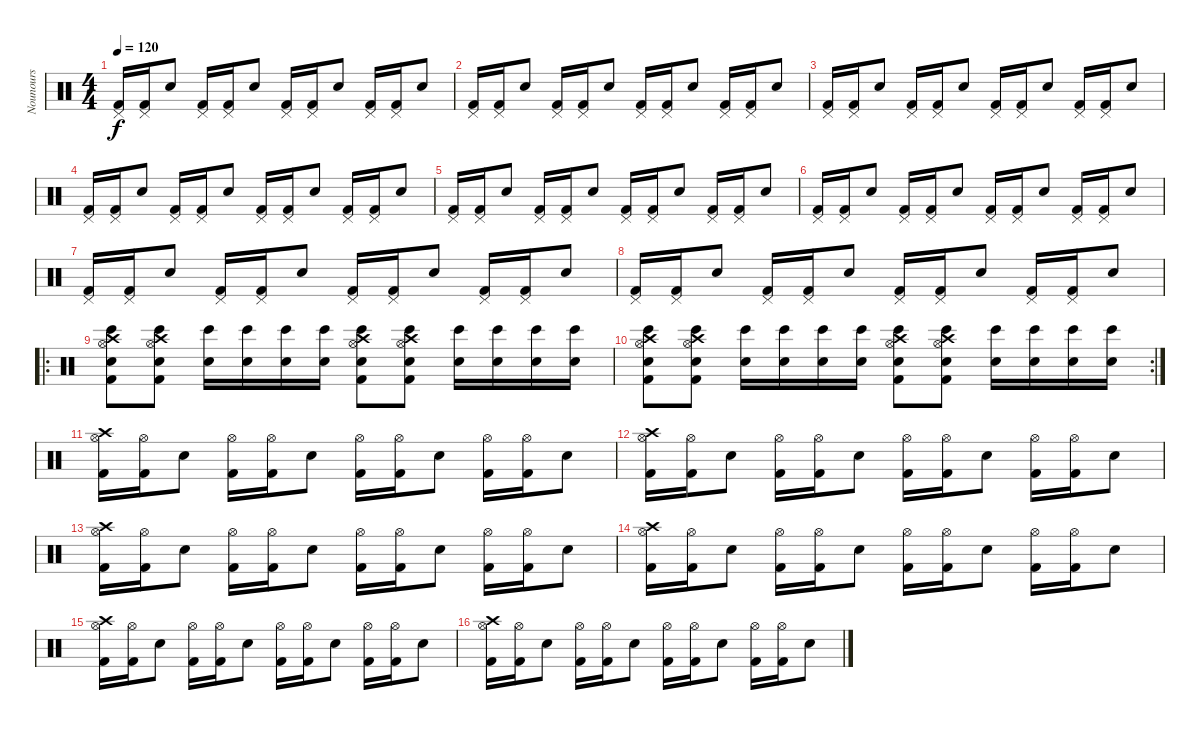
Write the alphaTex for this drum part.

\track ("Nounours" "Nounours") {instrument percussion}
\staff {score}
\articulation defaults
\ts (4 4)
\tempo 120
\clef neutral
\ks c
("Pedal Hi-Hat (hit)" "Kick (hit) 2").16{dy f} ("Pedal Hi-Hat (hit)" "Kick (hit) 2").16 "Electric Snare (hit)".8 ("Pedal Hi-Hat (hit)" "Kick (hit) 2").16 ("Pedal Hi-Hat (hit)" "Kick (hit) 2").16 "Electric Snare (hit)".8 ("Pedal Hi-Hat (hit)" "Kick (hit) 2").16 ("Pedal Hi-Hat (hit)" "Kick (hit) 2").16 "Electric Snare (hit)".8 ("Pedal Hi-Hat (hit)" "Kick (hit) 2").16 ("Pedal Hi-Hat (hit)" "Kick (hit) 2").16 "Electric Snare (hit)".8 |
("Pedal Hi-Hat (hit)" "Kick (hit) 2").16 ("Pedal Hi-Hat (hit)" "Kick (hit) 2").16 "Electric Snare (hit)".8 ("Pedal Hi-Hat (hit)" "Kick (hit) 2").16 ("Pedal Hi-Hat (hit)" "Kick (hit) 2").16 "Electric Snare (hit)".8 ("Pedal Hi-Hat (hit)" "Kick (hit) 2").16 ("Pedal Hi-Hat (hit)" "Kick (hit) 2").16 "Electric Snare (hit)".8 ("Pedal Hi-Hat (hit)" "Kick (hit) 2").16 ("Pedal Hi-Hat (hit)" "Kick (hit) 2").16 "Electric Snare (hit)".8 |
("Pedal Hi-Hat (hit)" "Kick (hit) 2").16 ("Pedal Hi-Hat (hit)" "Kick (hit) 2").16 "Electric Snare (hit)".8 ("Pedal Hi-Hat (hit)" "Kick (hit) 2").16 ("Pedal Hi-Hat (hit)" "Kick (hit) 2").16 "Electric Snare (hit)".8 ("Pedal Hi-Hat (hit)" "Kick (hit) 2").16 ("Pedal Hi-Hat (hit)" "Kick (hit) 2").16 "Electric Snare (hit)".8 ("Pedal Hi-Hat (hit)" "Kick (hit) 2").16 ("Pedal Hi-Hat (hit)" "Kick (hit) 2").16 "Electric Snare (hit)".8 |
("Pedal Hi-Hat (hit)" "Kick (hit) 2").16 ("Pedal Hi-Hat (hit)" "Kick (hit) 2").16 "Electric Snare (hit)".8 ("Pedal Hi-Hat (hit)" "Kick (hit) 2").16 ("Pedal Hi-Hat (hit)" "Kick (hit) 2").16 "Electric Snare (hit)".8 ("Pedal Hi-Hat (hit)" "Kick (hit) 2").16 ("Pedal Hi-Hat (hit)" "Kick (hit) 2").16 "Electric Snare (hit)".8 ("Pedal Hi-Hat (hit)" "Kick (hit) 2").16 ("Pedal Hi-Hat (hit)" "Kick (hit) 2").16 "Electric Snare (hit)".8 |
("Pedal Hi-Hat (hit)" "Kick (hit) 2").16 ("Pedal Hi-Hat (hit)" "Kick (hit) 2").16 "Electric Snare (hit)".8 ("Pedal Hi-Hat (hit)" "Kick (hit) 2").16 ("Pedal Hi-Hat (hit)" "Kick (hit) 2").16 "Electric Snare (hit)".8 ("Pedal Hi-Hat (hit)" "Kick (hit) 2").16 ("Pedal Hi-Hat (hit)" "Kick (hit) 2").16 "Electric Snare (hit)".8 ("Pedal Hi-Hat (hit)" "Kick (hit) 2").16 ("Pedal Hi-Hat (hit)" "Kick (hit) 2").16 "Electric Snare (hit)".8 |
("Pedal Hi-Hat (hit)" "Kick (hit) 2").16 ("Pedal Hi-Hat (hit)" "Kick (hit) 2").16 "Electric Snare (hit)".8 ("Pedal Hi-Hat (hit)" "Kick (hit) 2").16 ("Pedal Hi-Hat (hit)" "Kick (hit) 2").16 "Electric Snare (hit)".8 ("Pedal Hi-Hat (hit)" "Kick (hit) 2").16 ("Pedal Hi-Hat (hit)" "Kick (hit) 2").16 "Electric Snare (hit)".8 ("Pedal Hi-Hat (hit)" "Kick (hit) 2").16 ("Pedal Hi-Hat (hit)" "Kick (hit) 2").16 "Electric Snare (hit)".8 |
("Pedal Hi-Hat (hit)" "Kick (hit) 2").16 ("Pedal Hi-Hat (hit)" "Kick (hit) 2").16 "Electric Snare (hit)".8 ("Pedal Hi-Hat (hit)" "Kick (hit) 2").16 ("Pedal Hi-Hat (hit)" "Kick (hit) 2").16 "Electric Snare (hit)".8 ("Pedal Hi-Hat (hit)" "Kick (hit) 2").16 ("Pedal Hi-Hat (hit)" "Kick (hit) 2").16 "Electric Snare (hit)".8 ("Pedal Hi-Hat (hit)" "Kick (hit) 2").16 ("Pedal Hi-Hat (hit)" "Kick (hit) 2").16 "Electric Snare (hit)".8 |
("Pedal Hi-Hat (hit)" "Kick (hit) 2").16 ("Pedal Hi-Hat (hit)" "Kick (hit) 2").16 "Electric Snare (hit)".8 ("Pedal Hi-Hat (hit)" "Kick (hit) 2").16 ("Pedal Hi-Hat (hit)" "Kick (hit) 2").16 "Electric Snare (hit)".8 ("Pedal Hi-Hat (hit)" "Kick (hit) 2").16 ("Pedal Hi-Hat (hit)" "Kick (hit) 2").16 "Electric Snare (hit)".8 ("Pedal Hi-Hat (hit)" "Kick (hit) 2").16 ("Pedal Hi-Hat (hit)" "Kick (hit) 2").16 "Electric Snare (hit)".8 |
\ro
("Crash high (hit)" "Electric Snare (hit)" "Hi-Hat (open)" "Bongo High (hit)" "Kick (hit) 2").8 ("Crash high (hit)" "Electric Snare (hit)" "Hi-Hat (open)" "Bongo High (hit)" "Kick (hit) 2").8 ("Bongo High (hit)" "Electric Snare (hit)").16 ("Bongo High (hit)" "Electric Snare (hit)").16 ("Bongo High (hit)" "Electric Snare (hit)").16 ("Bongo High (hit)" "Electric Snare (hit)").16 ("Crash high (hit)" "Electric Snare (hit)" "Hi-Hat (open)" "Bongo High (hit)" "Kick (hit) 2").8 ("Crash high (hit)" "Electric Snare (hit)" "Hi-Hat (open)" "Bongo High (hit)" "Kick (hit) 2").8 ("Bongo High (hit)" "Electric Snare (hit)").16 ("Bongo High (hit)" "Electric Snare (hit)").16 ("Bongo High (hit)" "Electric Snare (hit)").16 ("Bongo High (hit)" "Electric Snare (hit)").16 |
\rc 2
("Crash high (hit)" "Electric Snare (hit)" "Hi-Hat (open)" "Bongo High (hit)" "Kick (hit) 2").8 ("Crash high (hit)" "Electric Snare (hit)" "Hi-Hat (open)" "Bongo High (hit)" "Kick (hit) 2").8 ("Bongo High (hit)" "Electric Snare (hit)").16 ("Bongo High (hit)" "Electric Snare (hit)").16 ("Bongo High (hit)" "Electric Snare (hit)").16 ("Bongo High (hit)" "Electric Snare (hit)").16 ("Crash high (hit)" "Electric Snare (hit)" "Hi-Hat (open)" "Bongo High (hit)" "Kick (hit) 2").8 ("Crash high (hit)" "Electric Snare (hit)" "Hi-Hat (open)" "Bongo High (hit)" "Kick (hit) 2").8 ("Bongo High (hit)" "Electric Snare (hit)").16 ("Bongo High (hit)" "Electric Snare (hit)").16 ("Bongo High (hit)" "Electric Snare (hit)").16 ("Bongo High (hit)" "Electric Snare (hit)").16 |
("Crash high (hit)" "Hi-Hat (open)" "Kick (hit) 2").16 ("Hi-Hat (open)" "Kick (hit) 2").16 "Electric Snare (hit)".8 ("Hi-Hat (open)" "Kick (hit) 2").16 ("Hi-Hat (open)" "Kick (hit) 2").16 "Electric Snare (hit)".8 ("Hi-Hat (open)" "Kick (hit) 2").16 ("Hi-Hat (open)" "Kick (hit) 2").16 "Electric Snare (hit)".8 ("Hi-Hat (open)" "Kick (hit) 2").16 ("Hi-Hat (open)" "Kick (hit) 2").16 "Electric Snare (hit)".8 |
("Crash high (hit)" "Hi-Hat (open)" "Kick (hit) 2").16 ("Hi-Hat (open)" "Kick (hit) 2").16 "Electric Snare (hit)".8 ("Hi-Hat (open)" "Kick (hit) 2").16 ("Hi-Hat (open)" "Kick (hit) 2").16 "Electric Snare (hit)".8 ("Hi-Hat (open)" "Kick (hit) 2").16 ("Hi-Hat (open)" "Kick (hit) 2").16 "Electric Snare (hit)".8 ("Hi-Hat (open)" "Kick (hit) 2").16 ("Hi-Hat (open)" "Kick (hit) 2").16 "Electric Snare (hit)".8 |
("Crash high (hit)" "Hi-Hat (open)" "Kick (hit) 2").16 ("Hi-Hat (open)" "Kick (hit) 2").16 "Electric Snare (hit)".8 ("Hi-Hat (open)" "Kick (hit) 2").16 ("Hi-Hat (open)" "Kick (hit) 2").16 "Electric Snare (hit)".8 ("Hi-Hat (open)" "Kick (hit) 2").16 ("Hi-Hat (open)" "Kick (hit) 2").16 "Electric Snare (hit)".8 ("Hi-Hat (open)" "Kick (hit) 2").16 ("Hi-Hat (open)" "Kick (hit) 2").16 "Electric Snare (hit)".8 |
("Crash high (hit)" "Hi-Hat (open)" "Kick (hit) 2").16 ("Hi-Hat (open)" "Kick (hit) 2").16 "Electric Snare (hit)".8 ("Hi-Hat (open)" "Kick (hit) 2").16 ("Hi-Hat (open)" "Kick (hit) 2").16 "Electric Snare (hit)".8 ("Hi-Hat (open)" "Kick (hit) 2").16 ("Hi-Hat (open)" "Kick (hit) 2").16 "Electric Snare (hit)".8 ("Hi-Hat (open)" "Kick (hit) 2").16 ("Hi-Hat (open)" "Kick (hit) 2").16 "Electric Snare (hit)".8 |
("Crash high (hit)" "Hi-Hat (open)" "Kick (hit) 2").16 ("Hi-Hat (open)" "Kick (hit) 2").16 "Electric Snare (hit)".8 ("Hi-Hat (open)" "Kick (hit) 2").16 ("Hi-Hat (open)" "Kick (hit) 2").16 "Electric Snare (hit)".8 ("Hi-Hat (open)" "Kick (hit) 2").16 ("Hi-Hat (open)" "Kick (hit) 2").16 "Electric Snare (hit)".8 ("Hi-Hat (open)" "Kick (hit) 2").16 ("Hi-Hat (open)" "Kick (hit) 2").16 "Electric Snare (hit)".8 |
("Crash high (hit)" "Hi-Hat (open)" "Kick (hit) 2").16 ("Hi-Hat (open)" "Kick (hit) 2").16 "Electric Snare (hit)".8 ("Hi-Hat (open)" "Kick (hit) 2").16 ("Hi-Hat (open)" "Kick (hit) 2").16 "Electric Snare (hit)".8 ("Hi-Hat (open)" "Kick (hit) 2").16 ("Hi-Hat (open)" "Kick (hit) 2").16 "Electric Snare (hit)".8 ("Hi-Hat (open)" "Kick (hit) 2").16 ("Hi-Hat (open)" "Kick (hit) 2").16 "Electric Snare (hit)".8
